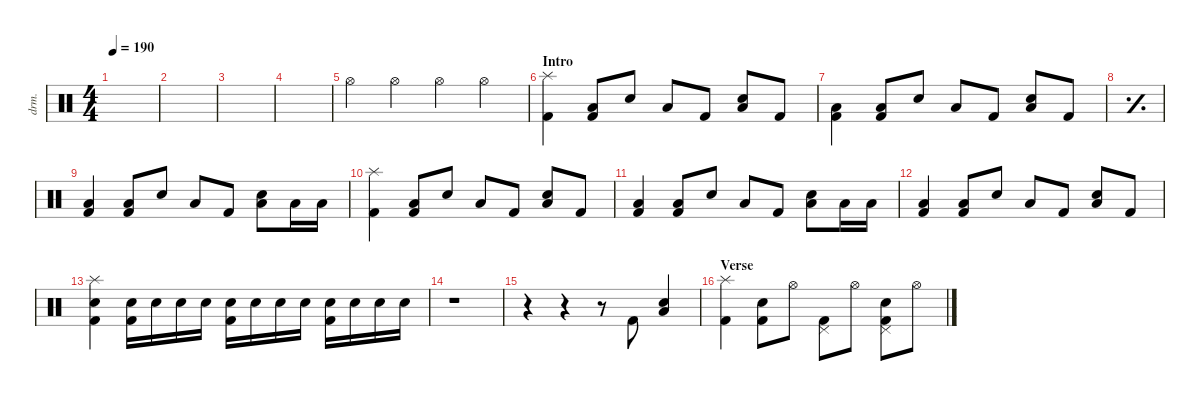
\defaultSystemsLayout 4
\hideDynamics
\bracketExtendMode nobrackets
\track ("伊地知虹夏" "drm.") {solo instrument percussion}
\staff {score}
\articulation defaults
\ts (4 4)
\tempo 190
\clef neutral
\ks c
|
|
|
|
"Hi-Hat (open)".4{beam Down} "Hi-Hat (open)".4{beam Down} "Hi-Hat (open)".4{beam Down} "Hi-Hat (open)".4{beam Down} |
\section ("" "Intro")
("Splash (hit)" "Kick (hit) 2").4{beam Down} ("Kick (hit) 2" "Low Tom (hit)").8{beam Up} "Snare (hit) 2".8{beam Up} "Low Tom (hit)".8{beam Up} "Kick (hit) 2".8{beam Up} ("Low Tom (hit)" "Snare (hit) 2").8{beam Up} "Kick (hit) 2".8{beam Up} |
("Kick (hit) 2" "Low Tom (hit)").4{beam Down} ("Kick (hit) 2" "Low Tom (hit)").8{beam Up} "Snare (hit) 2".8{beam Up} "Low Tom (hit)".8{beam Up} "Kick (hit) 2".8{beam Up} ("Low Tom (hit)" "Snare (hit) 2").8{beam Up} "Kick (hit) 2".8{beam Up} |
\simile simple
|
\simile none
("Kick (hit) 2" "Low Tom (hit)").4{beam Up} ("Kick (hit) 2" "Low Tom (hit)").8{beam Up} "Snare (hit) 2".8{beam Up} "Low Tom (hit)".8{beam Up} "Kick (hit) 2".8{beam Up} ("Low Tom (hit)" "Snare (hit) 2").8{beam Down} "Low Tom (hit)".16{beam Down} "Low Tom (hit)".16{beam Down} |
("Splash (hit)" "Kick (hit) 2").4{beam Down} ("Kick (hit) 2" "Low Tom (hit)").8{beam Up} "Snare (hit) 2".8{beam Up} "Low Tom (hit)".8{beam Up} "Kick (hit) 2".8{beam Up} ("Low Tom (hit)" "Snare (hit) 2").8{beam Up} "Kick (hit) 2".8{beam Up} |
("Kick (hit) 2" "Low Tom (hit)").4{beam Up} ("Kick (hit) 2" "Low Tom (hit)").8{beam Up} "Snare (hit) 2".8{beam Up} "Low Tom (hit)".8{beam Up} "Kick (hit) 2".8{beam Up} ("Low Tom (hit)" "Snare (hit) 2").8{beam Down} "Low Tom (hit)".16{beam Down} "Low Tom (hit)".16{beam Down} |
("Kick (hit) 2" "Low Tom (hit)").4{beam Up} ("Kick (hit) 2" "Low Tom (hit)").8{beam Up} "Snare (hit) 2".8{beam Up} "Low Tom (hit)".8{beam Up} "Kick (hit) 2".8{beam Up} ("Low Tom (hit)" "Snare (hit) 2").8{beam Up} "Kick (hit) 2".8{beam Up} |
("Kick (hit) 2" "Snare (hit) 2" "Splash (hit)").4{beam Down} ("Snare (hit) 2" "Kick (hit) 2").16{beam Down} "Snare (hit) 2".16{beam Down} "Snare (hit) 2".16{beam Down} "Snare (hit) 2".16{beam Down} ("Snare (hit) 2" "Kick (hit) 2").16{beam Down} "Snare (hit) 2".16{beam Down} "Snare (hit) 2".16{beam Down} "Snare (hit) 2".16{beam Down} ("Snare (hit) 2" "Kick (hit) 2").16{beam Down} "Snare (hit) 2".16{beam Down} "Snare (hit) 2".16{beam Down} "Snare (hit) 2".16{beam Down} |
r.1{beam Down} |
r.4{beam Down} r.4{beam Down} r.8{beam Down} "Kick (hit) 2".8{beam Up} ("Low Tom (hit)" "Snare (hit) 2").4{beam Up} |
\section ("" "Verse")
("Kick (hit) 2" "Splash (hit)").4{beam Down} ("Kick (hit) 2" "Snare (hit) 2").8{beam Down} "Hi-Hat (open)".8{beam Down} ("Kick (hit) 2" "Pedal Hi-Hat (hit)").8{beam Down} "Hi-Hat (open)".8{beam Down} ("Kick (hit) 2" "Snare (hit) 2" "Pedal Hi-Hat (hit)").8{beam Down} "Hi-Hat (open)".8{beam Down}
